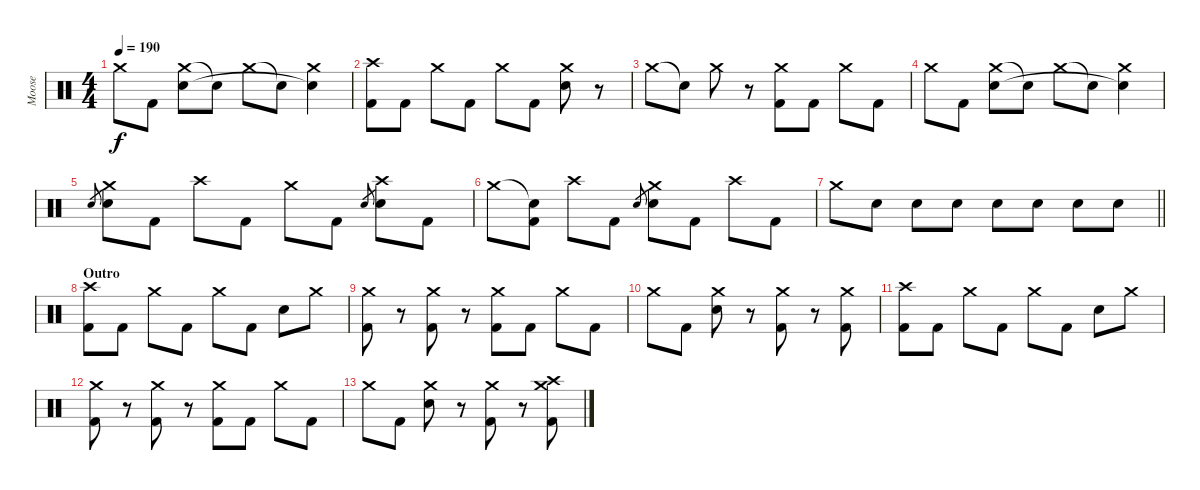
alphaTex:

\track ("Moose" "Moose") {instrument percussion}
\staff {score}
\articulation defaults
\ts (4 4)
\tempo 190
\clef neutral
\ks c "Crash medium (hit)".8{dy f} "Kick (hit) 2".8
("Crash medium (hit)" "Snare (hit) 2").8 "Snare (hit)"{t}.8 "Crash medium (hit)".8 "Snare (hit)"{t}.8 ("Crash medium (hit)" "Snare (hit)"{t}).4 |
("Crash high (hit)" "Kick (hit) 2").8 "Kick (hit) 2".8 "Crash medium (hit)".8 "Kick (hit) 2".8 "Crash medium (hit)".8 "Kick (hit) 2".8 ("Crash medium (hit)" "Snare (hit) 2").8 r.8 |
"Crash medium (hit)".8 "Snare (hit)"{t}.8 "Crash medium (hit)".8 r.8 ("Crash medium (hit)" "Kick (hit) 2").8 "Kick (hit) 2".8 "Crash medium (hit)".8 "Kick (hit) 2".8 |
"Crash medium (hit)".8 "Kick (hit) 2".8 ("Crash medium (hit)" "Snare (hit) 2").8 "Snare (hit)"{t}.8 "Crash medium (hit)".8 "Snare (hit)"{t}.8 ("Crash medium (hit)" "Snare (hit)"{t}).4 |
"Snare (hit) 2".8{gr} ("Crash medium (hit)" "Snare (hit) 2").8 "Kick (hit) 2".8 "Crash high (hit)".8 "Kick (hit) 2".8 "Crash medium (hit)".8 "Kick (hit) 2".8 "Snare (hit) 2".8{gr} ("Crash high (hit)" "Snare (hit) 2").8 "Kick (hit) 2".8 |
"Crash medium (hit)".8 ("Snare (hit)"{t} "Kick (hit) 2").8 "Crash high (hit)".8 "Kick (hit) 2".8 "Snare (hit) 2".8{gr} ("Crash medium (hit)" "Snare (hit) 2").8 "Kick (hit) 2".8 "Crash high (hit)".8 "Kick (hit) 2".8 |
\barLineRight lightlight "Crash medium (hit)".8 "Snare (hit) 2".8 "Snare (hit) 2".8 "Snare (hit) 2".8 "Snare (hit) 2".8 "Snare (hit) 2".8 "Snare (hit) 2".8 "Snare (hit) 2".8
|
\section ("" "Outro")
("Crash high (hit)" "Kick (hit) 2").8 "Kick (hit) 2".8 "Crash medium (hit)".8 "Kick (hit) 2".8 "Crash medium (hit)".8 "Kick (hit) 2".8 "Snare (hit) 2".8 "Crash medium (hit)".8 |
("Crash medium (hit)" "Kick (hit) 2").8 r.8 ("Crash medium (hit)" "Kick (hit) 2").8 r.8 ("Crash medium (hit)" "Kick (hit) 2").8 "Kick (hit) 2".8 "Crash medium (hit)".8 "Kick (hit) 2".8 |
"Crash medium (hit)".8 "Kick (hit) 2".8 ("Crash medium (hit)" "Snare (hit) 2").8 r.8 ("Crash medium (hit)" "Kick (hit) 2").8 r.8 ("Crash medium (hit)" "Kick (hit) 2").8 |
("Crash high (hit)" "Kick (hit) 2").8 "Kick (hit) 2".8 "Crash medium (hit)".8 "Kick (hit) 2".8 "Crash medium (hit)".8 "Kick (hit) 2".8 "Snare (hit) 2".8 "Crash medium (hit)".8 |
("Crash medium (hit)" "Kick (hit) 2").8 r.8 ("Crash medium (hit)" "Kick (hit) 2").8 r.8 ("Crash medium (hit)" "Kick (hit) 2").8 "Kick (hit) 2".8 "Crash medium (hit)".8 "Kick (hit) 2".8 |
"Crash medium (hit)".8 "Kick (hit) 2".8 ("Crash medium (hit)" "Snare (hit) 2").8 r.8 ("Crash medium (hit)" "Kick (hit) 2").8 r.8 ("Crash medium (hit)" "Crash high (hit)" "Kick (hit) 2").8
